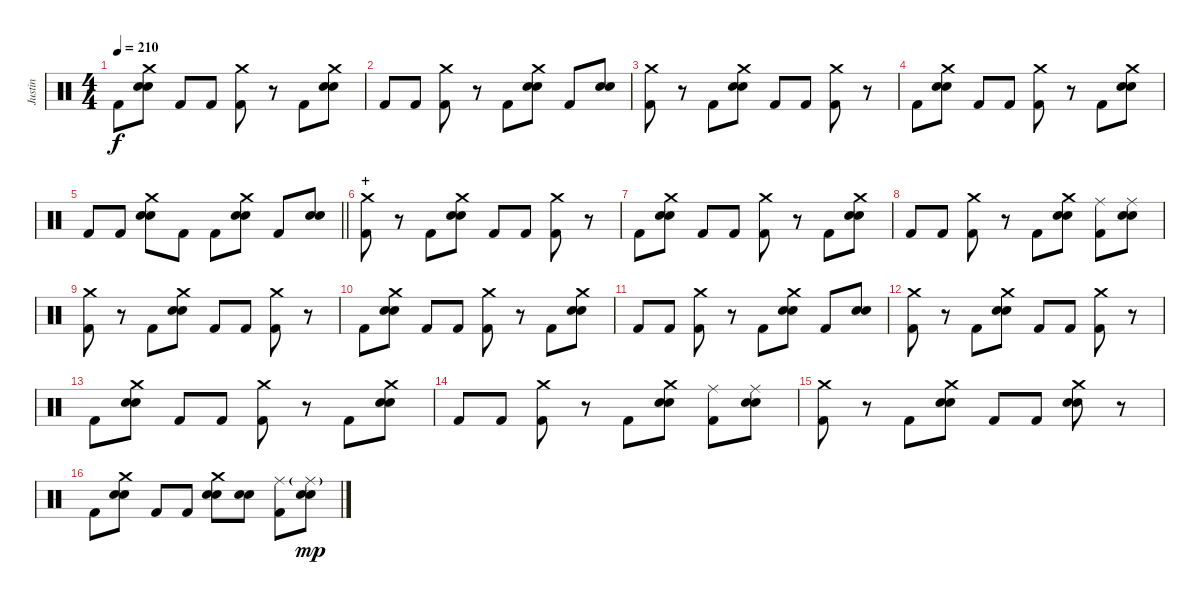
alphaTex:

\track ("Justin" "Justin") {instrument percussion}
\staff {score}
\articulation defaults
\ts (4 4)
\tempo 210
\clef neutral
\ks c "Kick (hit) 2".8{dy f}
("Crash medium (hit)" "Electric Snare (hit)" "Snare (hit) 2").8 "Kick (hit) 2".8 "Kick (hit) 2".8 ("Crash medium (hit)" "Kick (hit) 2").8 r.8 "Kick (hit) 2".8 ("Crash medium (hit)" "Electric Snare (hit)" "Snare (hit) 2").8 |
"Kick (hit) 2".8 "Kick (hit) 2".8 ("Crash medium (hit)" "Kick (hit) 2").8 r.8 "Kick (hit) 2".8 ("Crash medium (hit)" "Electric Snare (hit)" "Snare (hit) 2").8 "Kick (hit) 2".8 ("Electric Snare (hit)" "Snare (hit) 2").8 |
("Crash medium (hit)" "Kick (hit) 2").8 r.8 "Kick (hit) 2".8 ("Crash medium (hit)" "Electric Snare (hit)" "Snare (hit) 2").8 "Kick (hit) 2".8 "Kick (hit) 2".8 ("Crash medium (hit)" "Kick (hit) 2").8 r.8 |
"Kick (hit) 2".8 ("Crash medium (hit)" "Electric Snare (hit)" "Snare (hit) 2").8 "Kick (hit) 2".8 "Kick (hit) 2".8 ("Crash medium (hit)" "Kick (hit) 2").8 r.8 "Kick (hit) 2".8 ("Crash medium (hit)" "Electric Snare (hit)" "Snare (hit) 2").8 |
\barLineRight lightlight "Kick (hit) 2".8 "Kick (hit) 2".8
("Crash medium (hit)" "Electric Snare (hit)" "Snare (hit) 2").8 "Kick (hit) 2".8 "Kick (hit) 2".8 ("Crash medium (hit)" "Electric Snare (hit)" "Snare (hit) 2").8 "Kick (hit) 2".8 ("Electric Snare (hit)" "Snare (hit) 2").8 |
\section ("" "+")
("Crash medium (hit)" "Kick (hit) 2").8 r.8 "Kick (hit) 2".8 ("Crash medium (hit)" "Electric Snare (hit)" "Snare (hit) 2").8 "Kick (hit) 2".8 "Kick (hit) 2".8 ("Crash medium (hit)" "Kick (hit) 2").8 r.8 |
"Kick (hit) 2".8 ("Crash medium (hit)" "Electric Snare (hit)" "Snare (hit) 2").8 "Kick (hit) 2".8 "Kick (hit) 2".8 ("Crash medium (hit)" "Kick (hit) 2").8 r.8 "Kick (hit) 2".8 ("Crash medium (hit)" "Electric Snare (hit)" "Snare (hit) 2").8 |
"Kick (hit) 2".8 "Kick (hit) 2".8 ("Crash medium (hit)" "Kick (hit) 2").8 r.8 "Kick (hit) 2".8 ("Crash medium (hit)" "Electric Snare (hit)" "Snare (hit) 2").8 ("Ride (middle)" "Kick (hit) 2").8 ("Ride (middle)" "Electric Snare (hit)" "Snare (hit) 2").8 |
("Crash medium (hit)" "Kick (hit) 2").8 r.8 "Kick (hit) 2".8 ("Crash medium (hit)" "Electric Snare (hit)" "Snare (hit) 2").8 "Kick (hit) 2".8 "Kick (hit) 2".8 ("Crash medium (hit)" "Kick (hit) 2").8 r.8 |
"Kick (hit) 2".8 ("Crash medium (hit)" "Electric Snare (hit)" "Snare (hit) 2").8 "Kick (hit) 2".8 "Kick (hit) 2".8 ("Crash medium (hit)" "Kick (hit) 2").8 r.8 "Kick (hit) 2".8 ("Crash medium (hit)" "Electric Snare (hit)" "Snare (hit) 2").8 |
"Kick (hit) 2".8 "Kick (hit) 2".8 ("Crash medium (hit)" "Kick (hit) 2").8 r.8 "Kick (hit) 2".8 ("Crash medium (hit)" "Electric Snare (hit)" "Snare (hit) 2").8 "Kick (hit) 2".8 ("Electric Snare (hit)" "Snare (hit) 2").8 |
("Crash medium (hit)" "Kick (hit) 2").8 r.8 "Kick (hit) 2".8 ("Crash medium (hit)" "Electric Snare (hit)" "Snare (hit) 2").8 "Kick (hit) 2".8 "Kick (hit) 2".8 ("Crash medium (hit)" "Kick (hit) 2").8 r.8 |
"Kick (hit) 2".8 ("Crash medium (hit)" "Electric Snare (hit)" "Snare (hit) 2").8 "Kick (hit) 2".8 "Kick (hit) 2".8 ("Crash medium (hit)" "Kick (hit) 2").8 r.8 "Kick (hit) 2".8 ("Crash medium (hit)" "Electric Snare (hit)" "Snare (hit) 2").8 |
"Kick (hit) 2".8 "Kick (hit) 2".8 ("Crash medium (hit)" "Kick (hit) 2").8 r.8 "Kick (hit) 2".8 ("Crash medium (hit)" "Electric Snare (hit)" "Snare (hit) 2").8 ("Ride (middle)" "Kick (hit) 2").8 ("Ride (middle)" "Electric Snare (hit)" "Snare (hit) 2").8 |
("Crash medium (hit)" "Kick (hit) 2").8 r.8 "Kick (hit) 2".8 ("Crash medium (hit)" "Electric Snare (hit)" "Snare (hit) 2").8 "Kick (hit) 2".8 "Kick (hit) 2".8 ("Crash medium (hit)" "Electric Snare (hit)" "Snare (hit) 2").8 r.8 |
"Kick (hit) 2".8 ("Crash medium (hit)" "Electric Snare (hit)" "Snare (hit) 2").8 "Kick (hit) 2".8 "Kick (hit) 2".8 ("Crash medium (hit)" "Electric Snare (hit)" "Snare (hit) 2").8 ("Electric Snare (hit)" "Snare (hit) 2").8 ("Ride (middle)" "Kick (hit) 2").8 ("Ride (middle)"{g} "Electric Snare (hit)" "Snare (hit) 2").8{dy mp}
